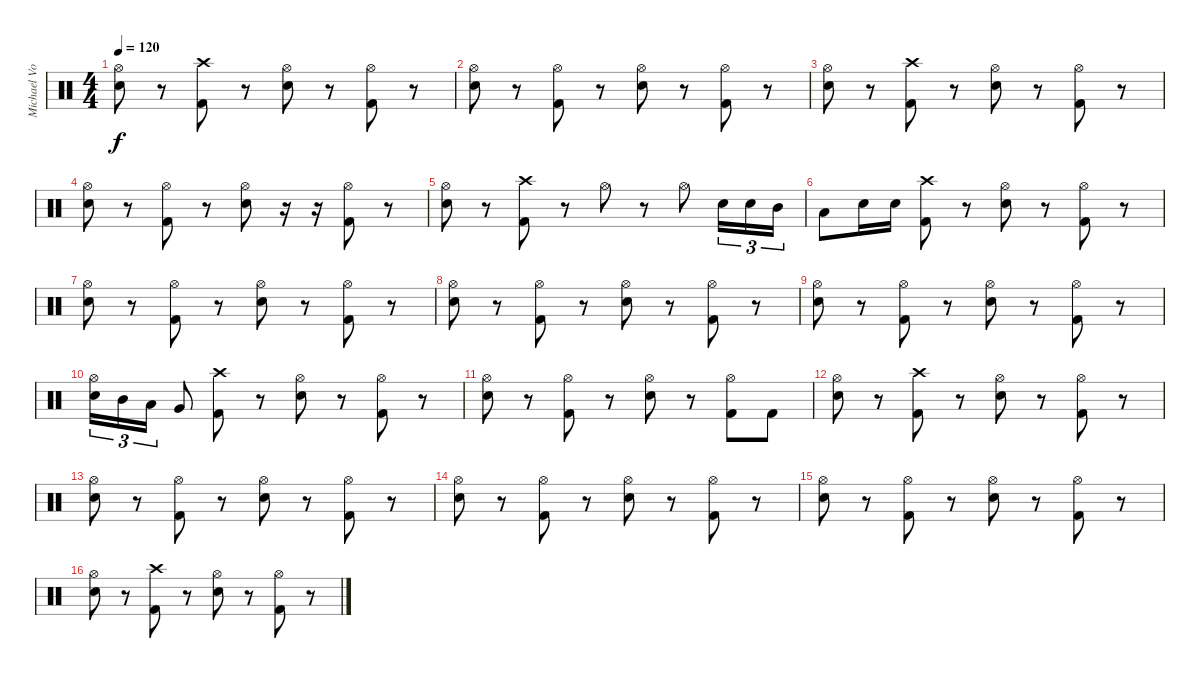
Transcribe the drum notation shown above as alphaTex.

\track ("Michael Von Knorring" "Michael Vo") {instrument percussion}
\staff {score}
\articulation defaults
\ts (4 4)
\tempo 120
\clef neutral
\ks c
("Hi-Hat (open)" "Snare (hit) 2").8{dy f} r.8 ("Crash high (hit)" "Kick (hit) 2").8 r.8 ("Hi-Hat (open)" "Snare (hit) 2").8 r.8 ("Hi-Hat (open)" "Kick (hit) 2").8 r.8 |
("Hi-Hat (open)" "Snare (hit) 2").8 r.8 ("Hi-Hat (open)" "Kick (hit) 2").8 r.8 ("Hi-Hat (open)" "Snare (hit) 2").8 r.8 ("Kick (hit) 2" "Hi-Hat (open)").8 r.8 |
("Hi-Hat (open)" "Snare (hit) 2").8 r.8 ("Crash high (hit)" "Kick (hit) 2").8 r.8 ("Hi-Hat (open)" "Snare (hit) 2").8 r.8 ("Hi-Hat (open)" "Kick (hit) 2").8 r.8 |
("Hi-Hat (open)" "Snare (hit) 2").8 r.8 ("Hi-Hat (open)" "Kick (hit) 2").8 r.8 ("Hi-Hat (open)" "Snare (hit) 2").8 r.16 r.16 ("Hi-Hat (open)" "Kick (hit) 2").8 r.8 |
("Hi-Hat (open)" "Snare (hit) 2").8 r.8 ("Crash high (hit)" "Kick (hit) 2").8 r.8 "Hi-Hat (open)".8 r.8 "Hi-Hat (open)".8 "Snare (hit) 2".16{tu (3 2)} "Snare (hit) 2".16{tu (3 2)} "Mid Tom (hit)".16{tu (3 2)} |
"Low Tom (hit)".8 "Snare (hit) 2".16 "Snare (hit) 2".16 ("Crash high (hit)" "Kick (hit) 2").8 r.8 ("Hi-Hat (open)" "Snare (hit) 2").8 r.8 ("Hi-Hat (open)" "Kick (hit) 2").8 r.8 |
("Hi-Hat (open)" "Snare (hit) 2").8 r.8 ("Hi-Hat (open)" "Kick (hit) 2").8 r.8 ("Hi-Hat (open)" "Snare (hit) 2").8 r.8 ("Hi-Hat (open)" "Kick (hit) 2").8 r.8 |
("Hi-Hat (open)" "Snare (hit) 2").8 r.8 ("Hi-Hat (open)" "Kick (hit) 2").8 r.8 ("Hi-Hat (open)" "Snare (hit) 2").8 r.8 ("Hi-Hat (open)" "Kick (hit) 2").8 r.8 |
("Hi-Hat (open)" "Snare (hit) 2").8 r.8 ("Hi-Hat (open)" "Kick (hit) 2").8 r.8 ("Hi-Hat (open)" "Snare (hit) 2").8 r.8 ("Hi-Hat (open)" "Kick (hit) 2").8 r.8 |
("Hi-Hat (open)" "Snare (hit) 2").16{tu (3 2)} "Mid Tom (hit)".16{tu (3 2)} "Low Tom (hit)".16{tu (3 2)} "Very Low Tom (hit)".8 ("Crash high (hit)" "Kick (hit) 2").8 r.8 ("Hi-Hat (open)" "Snare (hit) 2").8 r.8 ("Hi-Hat (open)" "Kick (hit) 2").8 r.8 |
("Hi-Hat (open)" "Snare (hit) 2").8 r.8 ("Hi-Hat (open)" "Kick (hit) 2").8 r.8 ("Hi-Hat (open)" "Snare (hit) 2").8 r.8 ("Hi-Hat (open)" "Kick (hit) 2").8 "Kick (hit) 2".8 |
("Hi-Hat (open)" "Snare (hit) 2").8 r.8 ("Crash high (hit)" "Kick (hit) 2").8 r.8 ("Hi-Hat (open)" "Snare (hit) 2").8 r.8 ("Hi-Hat (open)" "Kick (hit) 2").8 r.8 |
("Hi-Hat (open)" "Snare (hit) 2").8 r.8 ("Hi-Hat (open)" "Kick (hit) 2").8 r.8 ("Hi-Hat (open)" "Snare (hit) 2").8 r.8 ("Hi-Hat (open)" "Kick (hit) 2").8 r.8 |
("Hi-Hat (open)" "Snare (hit) 2").8 r.8 ("Hi-Hat (open)" "Kick (hit) 2").8 r.8 ("Hi-Hat (open)" "Snare (hit) 2").8 r.8 ("Hi-Hat (open)" "Kick (hit) 2").8 r.8 |
("Hi-Hat (open)" "Snare (hit) 2").8 r.8 ("Hi-Hat (open)" "Kick (hit) 2").8 r.8 ("Hi-Hat (open)" "Snare (hit) 2").8 r.8 ("Hi-Hat (open)" "Kick (hit) 2").8 r.8 |
("Hi-Hat (open)" "Snare (hit) 2").8 r.8 ("Crash high (hit)" "Kick (hit) 2").8 r.8 ("Hi-Hat (open)" "Snare (hit) 2").8 r.8 ("Hi-Hat (open)" "Kick (hit) 2").8 r.8
